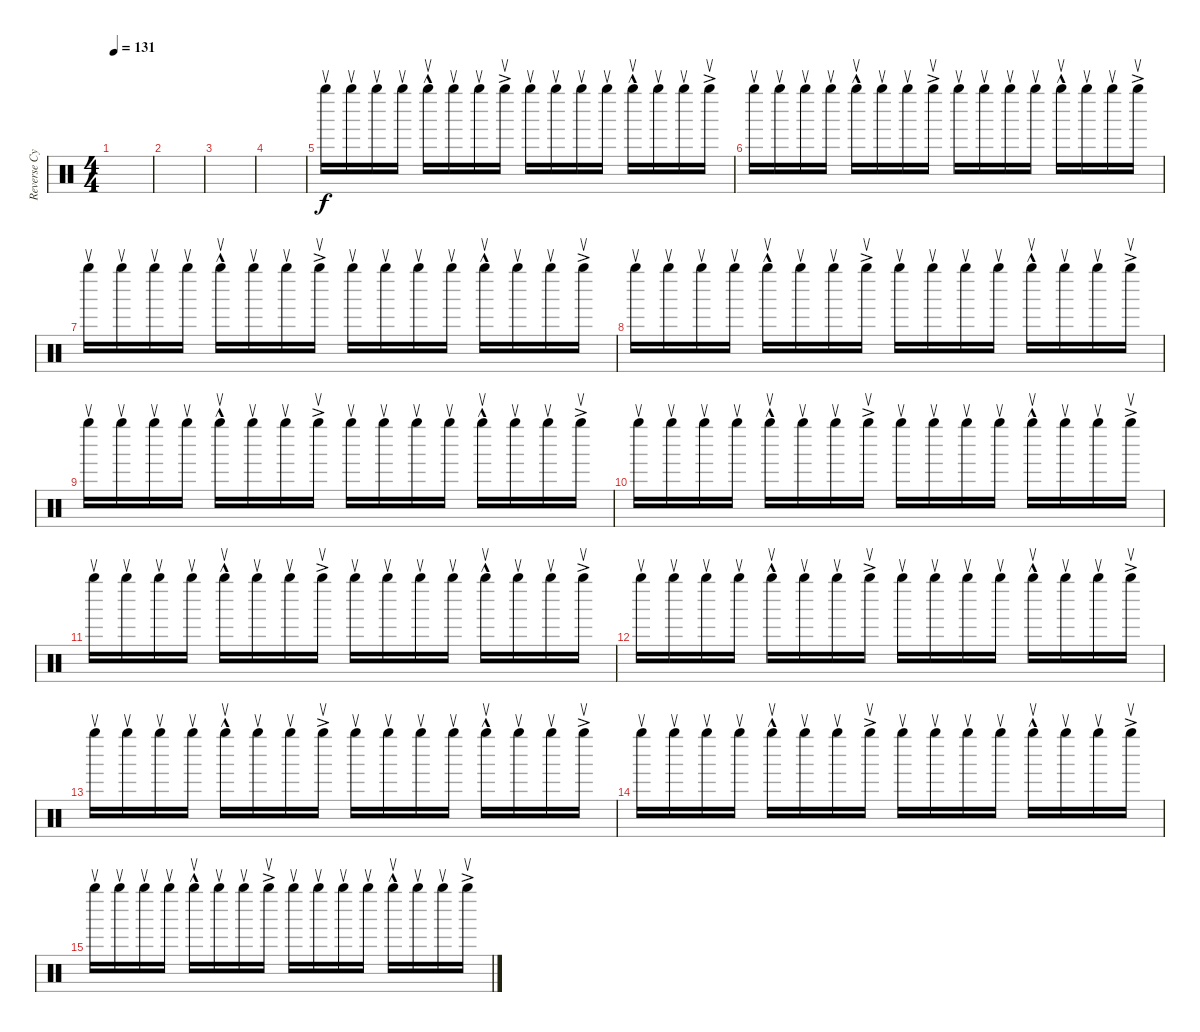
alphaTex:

\track ("Reverse Cymbal" "Reverse Cy") {instrument percussion}
\staff {score}
\articulation defaults
\ts (4 4)
\tempo 131
\clef neutral
\ks c
|
|
|
|
"Right Maraca (return)".16 "Right Maraca (return)".16 "Right Maraca (return)".16 "Right Maraca (return)".16 "Right Maraca (return)"{hac}.16 "Right Maraca (return)".16 "Right Maraca (return)".16 "Right Maraca (return)"{ac}.16 "Right Maraca (return)".16 "Right Maraca (return)".16 "Right Maraca (return)".16 "Right Maraca (return)".16 "Right Maraca (return)"{hac}.16 "Right Maraca (return)".16 "Right Maraca (return)".16 "Right Maraca (return)"{ac}.16 |
"Right Maraca (return)".16 "Right Maraca (return)".16 "Right Maraca (return)".16 "Right Maraca (return)".16 "Right Maraca (return)"{hac}.16 "Right Maraca (return)".16 "Right Maraca (return)".16 "Right Maraca (return)"{ac}.16 "Right Maraca (return)".16 "Right Maraca (return)".16 "Right Maraca (return)".16 "Right Maraca (return)".16 "Right Maraca (return)"{hac}.16 "Right Maraca (return)".16 "Right Maraca (return)".16 "Right Maraca (return)"{ac}.16 |
"Right Maraca (return)".16 "Right Maraca (return)".16 "Right Maraca (return)".16 "Right Maraca (return)".16 "Right Maraca (return)"{hac}.16 "Right Maraca (return)".16 "Right Maraca (return)".16 "Right Maraca (return)"{ac}.16 "Right Maraca (return)".16 "Right Maraca (return)".16 "Right Maraca (return)".16 "Right Maraca (return)".16 "Right Maraca (return)"{hac}.16 "Right Maraca (return)".16 "Right Maraca (return)".16 "Right Maraca (return)"{ac}.16 |
"Right Maraca (return)".16 "Right Maraca (return)".16 "Right Maraca (return)".16 "Right Maraca (return)".16 "Right Maraca (return)"{hac}.16 "Right Maraca (return)".16 "Right Maraca (return)".16 "Right Maraca (return)"{ac}.16 "Right Maraca (return)".16 "Right Maraca (return)".16 "Right Maraca (return)".16 "Right Maraca (return)".16 "Right Maraca (return)"{hac}.16 "Right Maraca (return)".16 "Right Maraca (return)".16 "Right Maraca (return)"{ac}.16 |
"Right Maraca (return)".16 "Right Maraca (return)".16 "Right Maraca (return)".16 "Right Maraca (return)".16 "Right Maraca (return)"{hac}.16 "Right Maraca (return)".16 "Right Maraca (return)".16 "Right Maraca (return)"{ac}.16 "Right Maraca (return)".16 "Right Maraca (return)".16 "Right Maraca (return)".16 "Right Maraca (return)".16 "Right Maraca (return)"{hac}.16 "Right Maraca (return)".16 "Right Maraca (return)".16 "Right Maraca (return)"{ac}.16 |
"Right Maraca (return)".16 "Right Maraca (return)".16 "Right Maraca (return)".16 "Right Maraca (return)".16 "Right Maraca (return)"{hac}.16 "Right Maraca (return)".16 "Right Maraca (return)".16 "Right Maraca (return)"{ac}.16 "Right Maraca (return)".16 "Right Maraca (return)".16 "Right Maraca (return)".16 "Right Maraca (return)".16 "Right Maraca (return)"{hac}.16 "Right Maraca (return)".16 "Right Maraca (return)".16 "Right Maraca (return)"{ac}.16 |
"Right Maraca (return)".16 "Right Maraca (return)".16 "Right Maraca (return)".16 "Right Maraca (return)".16 "Right Maraca (return)"{hac}.16 "Right Maraca (return)".16 "Right Maraca (return)".16 "Right Maraca (return)"{ac}.16 "Right Maraca (return)".16 "Right Maraca (return)".16 "Right Maraca (return)".16 "Right Maraca (return)".16 "Right Maraca (return)"{hac}.16 "Right Maraca (return)".16 "Right Maraca (return)".16 "Right Maraca (return)"{ac}.16 |
"Right Maraca (return)".16 "Right Maraca (return)".16 "Right Maraca (return)".16 "Right Maraca (return)".16 "Right Maraca (return)"{hac}.16 "Right Maraca (return)".16 "Right Maraca (return)".16 "Right Maraca (return)"{ac}.16 "Right Maraca (return)".16 "Right Maraca (return)".16 "Right Maraca (return)".16 "Right Maraca (return)".16 "Right Maraca (return)"{hac}.16 "Right Maraca (return)".16 "Right Maraca (return)".16 "Right Maraca (return)"{ac}.16 |
"Right Maraca (return)".16 "Right Maraca (return)".16 "Right Maraca (return)".16 "Right Maraca (return)".16 "Right Maraca (return)"{hac}.16 "Right Maraca (return)".16 "Right Maraca (return)".16 "Right Maraca (return)"{ac}.16 "Right Maraca (return)".16 "Right Maraca (return)".16 "Right Maraca (return)".16 "Right Maraca (return)".16 "Right Maraca (return)"{hac}.16 "Right Maraca (return)".16 "Right Maraca (return)".16 "Right Maraca (return)"{ac}.16 |
"Right Maraca (return)".16 "Right Maraca (return)".16 "Right Maraca (return)".16 "Right Maraca (return)".16 "Right Maraca (return)"{hac}.16 "Right Maraca (return)".16 "Right Maraca (return)".16 "Right Maraca (return)"{ac}.16 "Right Maraca (return)".16 "Right Maraca (return)".16 "Right Maraca (return)".16 "Right Maraca (return)".16 "Right Maraca (return)"{hac}.16 "Right Maraca (return)".16 "Right Maraca (return)".16 "Right Maraca (return)"{ac}.16 |
"Right Maraca (return)".16 "Right Maraca (return)".16 "Right Maraca (return)".16 "Right Maraca (return)".16 "Right Maraca (return)"{hac}.16 "Right Maraca (return)".16 "Right Maraca (return)".16 "Right Maraca (return)"{ac}.16 "Right Maraca (return)".16 "Right Maraca (return)".16 "Right Maraca (return)".16 "Right Maraca (return)".16 "Right Maraca (return)"{hac}.16 "Right Maraca (return)".16 "Right Maraca (return)".16 "Right Maraca (return)"{ac}.16
